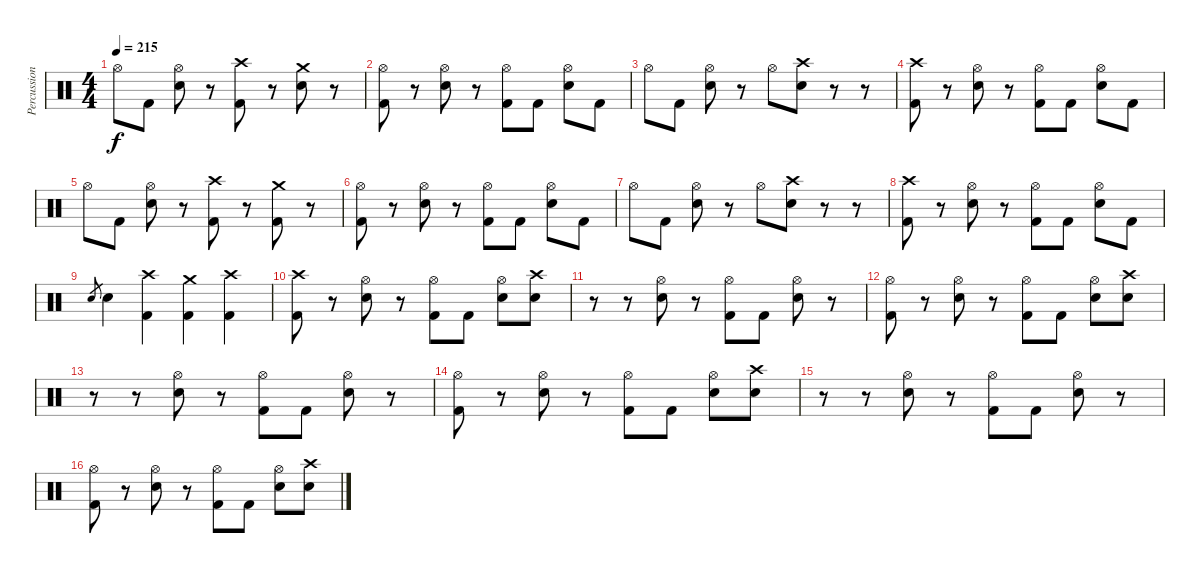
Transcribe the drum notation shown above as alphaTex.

\track ("Percussion" "Percussion") {instrument percussion}
\staff {score}
\articulation defaults
\ts (4 4)
\tempo 215
\clef neutral
\ks c "Hi-Hat (open)".8{dy f} "Kick (hit) 2".8
("Hi-Hat (open)" "Snare (hit) 2").8 r.8 ("Crash high (hit)" "Kick (hit) 2").8 r.8 ("Crash medium (hit)" "Snare (hit) 2").8 r.8 |
("Hi-Hat (open)" "Kick (hit) 2").8 r.8 ("Hi-Hat (open)" "Snare (hit) 2").8 r.8 ("Hi-Hat (open)" "Kick (hit) 2").8 "Kick (hit) 2".8 ("Hi-Hat (open)" "Snare (hit) 2").8 "Kick (hit) 2".8 |
"Hi-Hat (open)".8 "Kick (hit) 2".8 ("Hi-Hat (open)" "Snare (hit) 2").8 r.8 "Hi-Hat (open)".8 ("Crash high (hit)" "Snare (hit) 2").8 r.8 r.8 |
("Crash high (hit)" "Kick (hit) 2").8 r.8 ("Hi-Hat (open)" "Snare (hit) 2").8 r.8 ("Hi-Hat (open)" "Kick (hit) 2").8 "Kick (hit) 2".8 ("Hi-Hat (open)" "Snare (hit) 2").8 "Kick (hit) 2".8 |
"Hi-Hat (open)".8 "Kick (hit) 2".8 ("Hi-Hat (open)" "Snare (hit) 2").8 r.8 ("Crash high (hit)" "Kick (hit) 2").8 r.8 ("Crash medium (hit)" "Kick (hit) 2").8 r.8 |
("Hi-Hat (open)" "Kick (hit) 2").8 r.8 ("Hi-Hat (open)" "Snare (hit) 2").8 r.8 ("Hi-Hat (open)" "Kick (hit) 2").8 "Kick (hit) 2".8 ("Hi-Hat (open)" "Snare (hit) 2").8 "Kick (hit) 2".8 |
"Hi-Hat (open)".8 "Kick (hit) 2".8 ("Hi-Hat (open)" "Snare (hit) 2").8 r.8 "Hi-Hat (open)".8 ("Crash high (hit)" "Snare (hit) 2").8 r.8 r.8 |
("Crash high (hit)" "Kick (hit) 2").8 r.8 ("Hi-Hat (open)" "Snare (hit) 2").8 r.8 ("Hi-Hat (open)" "Kick (hit) 2").8 "Kick (hit) 2".8 ("Hi-Hat (open)" "Snare (hit) 2").8 "Kick (hit) 2".8 |
"Snare (hit) 2".8{gr} "Snare (hit) 2".4 ("Crash high (hit)" "Kick (hit) 2").4 ("Crash medium (hit)" "Kick (hit) 2").4 ("Crash high (hit)" "Kick (hit) 2").4 |
("Crash high (hit)" "Kick (hit) 2").8 r.8 ("Hi-Hat (open)" "Snare (hit) 2").8 r.8 ("Hi-Hat (open)" "Kick (hit) 2").8 "Kick (hit) 2".8 ("Hi-Hat (open)" "Snare (hit) 2").8 ("Crash high (hit)" "Snare (hit) 2").8 |
r.8 r.8 ("Hi-Hat (open)" "Snare (hit) 2").8 r.8 ("Hi-Hat (open)" "Kick (hit) 2").8 "Kick (hit) 2".8 ("Hi-Hat (open)" "Snare (hit) 2").8 r.8 |
("Hi-Hat (open)" "Kick (hit) 2").8 r.8 ("Hi-Hat (open)" "Snare (hit) 2").8 r.8 ("Hi-Hat (open)" "Kick (hit) 2").8 "Kick (hit) 2".8 ("Hi-Hat (open)" "Snare (hit) 2").8 ("Crash high (hit)" "Snare (hit) 2").8 |
r.8 r.8 ("Hi-Hat (open)" "Snare (hit) 2").8 r.8 ("Hi-Hat (open)" "Kick (hit) 2").8 "Kick (hit) 2".8 ("Hi-Hat (open)" "Snare (hit) 2").8 r.8 |
("Hi-Hat (open)" "Kick (hit) 2").8 r.8 ("Hi-Hat (open)" "Snare (hit) 2").8 r.8 ("Hi-Hat (open)" "Kick (hit) 2").8 "Kick (hit) 2".8 ("Hi-Hat (open)" "Snare (hit) 2").8 ("Crash high (hit)" "Snare (hit) 2").8 |
r.8 r.8 ("Hi-Hat (open)" "Snare (hit) 2").8 r.8 ("Hi-Hat (open)" "Kick (hit) 2").8 "Kick (hit) 2".8 ("Hi-Hat (open)" "Snare (hit) 2").8 r.8 |
("Hi-Hat (open)" "Kick (hit) 2").8 r.8 ("Hi-Hat (open)" "Snare (hit) 2").8 r.8 ("Hi-Hat (open)" "Kick (hit) 2").8 "Kick (hit) 2".8 ("Hi-Hat (open)" "Snare (hit) 2").8 ("Crash high (hit)" "Snare (hit) 2").8
